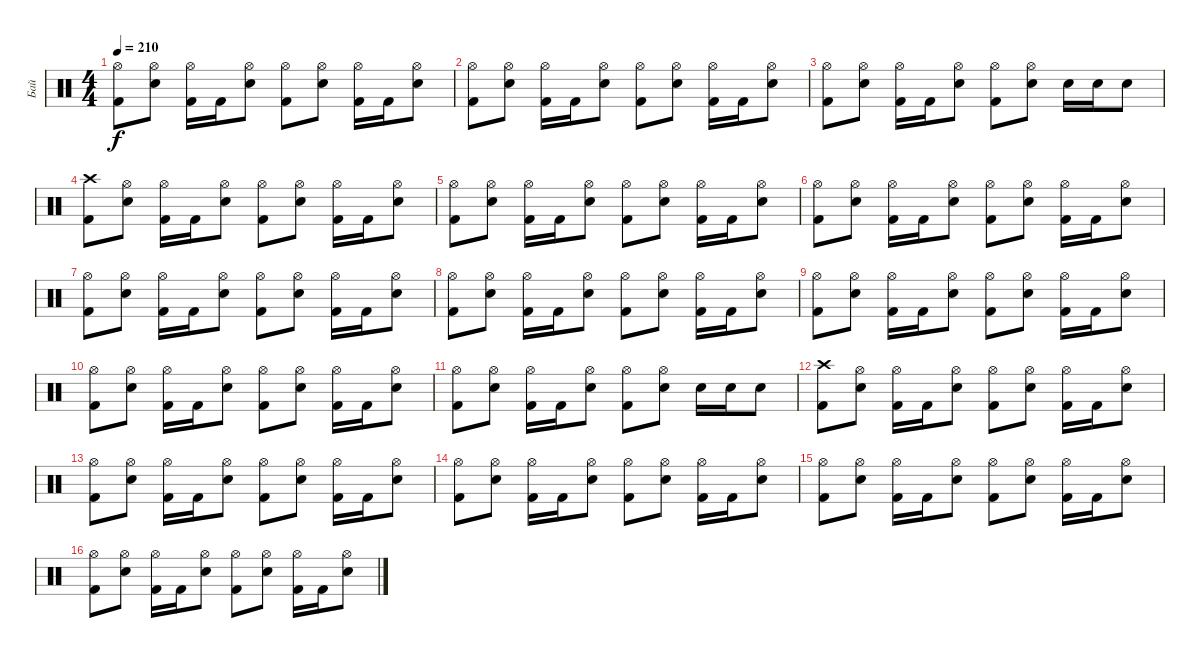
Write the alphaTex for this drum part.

\track ("Бай" "Бай") {instrument percussion}
\staff {score}
\articulation defaults
\ts (4 4)
\tempo 210
\clef neutral
\ks c
("Hi-Hat (open)" "Kick (hit) 2").8{dy f} ("Hi-Hat (open)" "Electric Snare (hit)").8 ("Hi-Hat (open)" "Kick (hit) 2").16 "Kick (hit) 2".16 ("Hi-Hat (open)" "Electric Snare (hit)").8 ("Hi-Hat (open)" "Kick (hit) 2").8 ("Hi-Hat (open)" "Electric Snare (hit)").8 ("Hi-Hat (open)" "Kick (hit) 2").16 "Kick (hit) 2".16 ("Hi-Hat (open)" "Electric Snare (hit)").8 |
("Hi-Hat (open)" "Kick (hit) 2").8 ("Hi-Hat (open)" "Electric Snare (hit)").8 ("Hi-Hat (open)" "Kick (hit) 2").16 "Kick (hit) 2".16 ("Hi-Hat (open)" "Electric Snare (hit)").8 ("Hi-Hat (open)" "Kick (hit) 2").8 ("Hi-Hat (open)" "Electric Snare (hit)").8 ("Hi-Hat (open)" "Kick (hit) 2").16 "Kick (hit) 2".16 ("Hi-Hat (open)" "Electric Snare (hit)").8 |
("Hi-Hat (open)" "Kick (hit) 2").8 ("Hi-Hat (open)" "Electric Snare (hit)").8 ("Hi-Hat (open)" "Kick (hit) 2").16 "Kick (hit) 2".16 ("Hi-Hat (open)" "Electric Snare (hit)").8 ("Hi-Hat (open)" "Kick (hit) 2").8 ("Hi-Hat (open)" "Electric Snare (hit)").8 "Electric Snare (hit)".16 "Electric Snare (hit)".16 "Electric Snare (hit)".8 |
("Crash high (hit)" "Kick (hit) 2").8 ("Hi-Hat (open)" "Electric Snare (hit)").8 ("Hi-Hat (open)" "Kick (hit) 2").16 "Kick (hit) 2".16 ("Hi-Hat (open)" "Electric Snare (hit)").8 ("Hi-Hat (open)" "Kick (hit) 2").8 ("Hi-Hat (open)" "Electric Snare (hit)").8 ("Hi-Hat (open)" "Kick (hit) 2").16 "Kick (hit) 2".16 ("Hi-Hat (open)" "Electric Snare (hit)").8 |
("Hi-Hat (open)" "Kick (hit) 2").8 ("Hi-Hat (open)" "Electric Snare (hit)").8 ("Hi-Hat (open)" "Kick (hit) 2").16 "Kick (hit) 2".16 ("Hi-Hat (open)" "Electric Snare (hit)").8 ("Hi-Hat (open)" "Kick (hit) 2").8 ("Hi-Hat (open)" "Electric Snare (hit)").8 ("Hi-Hat (open)" "Kick (hit) 2").16 "Kick (hit) 2".16 ("Hi-Hat (open)" "Electric Snare (hit)").8 |
("Hi-Hat (open)" "Kick (hit) 2").8 ("Hi-Hat (open)" "Electric Snare (hit)").8 ("Hi-Hat (open)" "Kick (hit) 2").16 "Kick (hit) 2".16 ("Hi-Hat (open)" "Electric Snare (hit)").8 ("Hi-Hat (open)" "Kick (hit) 2").8 ("Hi-Hat (open)" "Electric Snare (hit)").8 ("Hi-Hat (open)" "Kick (hit) 2").16 "Kick (hit) 2".16 ("Hi-Hat (open)" "Electric Snare (hit)").8 |
("Hi-Hat (open)" "Kick (hit) 2").8 ("Hi-Hat (open)" "Electric Snare (hit)").8 ("Hi-Hat (open)" "Kick (hit) 2").16 "Kick (hit) 2".16 ("Hi-Hat (open)" "Electric Snare (hit)").8 ("Hi-Hat (open)" "Kick (hit) 2").8 ("Hi-Hat (open)" "Electric Snare (hit)").8 ("Hi-Hat (open)" "Kick (hit) 2").16 "Kick (hit) 2".16 ("Hi-Hat (open)" "Electric Snare (hit)").8 |
("Hi-Hat (open)" "Kick (hit) 2").8 ("Hi-Hat (open)" "Electric Snare (hit)").8 ("Hi-Hat (open)" "Kick (hit) 2").16 "Kick (hit) 2".16 ("Hi-Hat (open)" "Electric Snare (hit)").8 ("Hi-Hat (open)" "Kick (hit) 2").8 ("Hi-Hat (open)" "Electric Snare (hit)").8 ("Hi-Hat (open)" "Kick (hit) 2").16 "Kick (hit) 2".16 ("Hi-Hat (open)" "Electric Snare (hit)").8 |
("Hi-Hat (open)" "Kick (hit) 2").8 ("Hi-Hat (open)" "Electric Snare (hit)").8 ("Hi-Hat (open)" "Kick (hit) 2").16 "Kick (hit) 2".16 ("Hi-Hat (open)" "Electric Snare (hit)").8 ("Hi-Hat (open)" "Kick (hit) 2").8 ("Hi-Hat (open)" "Electric Snare (hit)").8 ("Hi-Hat (open)" "Kick (hit) 2").16 "Kick (hit) 2".16 ("Hi-Hat (open)" "Electric Snare (hit)").8 |
("Hi-Hat (open)" "Kick (hit) 2").8 ("Hi-Hat (open)" "Electric Snare (hit)").8 ("Hi-Hat (open)" "Kick (hit) 2").16 "Kick (hit) 2".16 ("Hi-Hat (open)" "Electric Snare (hit)").8 ("Hi-Hat (open)" "Kick (hit) 2").8 ("Hi-Hat (open)" "Electric Snare (hit)").8 ("Hi-Hat (open)" "Kick (hit) 2").16 "Kick (hit) 2".16 ("Hi-Hat (open)" "Electric Snare (hit)").8 |
("Hi-Hat (open)" "Kick (hit) 2").8 ("Hi-Hat (open)" "Electric Snare (hit)").8 ("Hi-Hat (open)" "Kick (hit) 2").16 "Kick (hit) 2".16 ("Hi-Hat (open)" "Electric Snare (hit)").8 ("Hi-Hat (open)" "Kick (hit) 2").8 ("Hi-Hat (open)" "Electric Snare (hit)").8 "Electric Snare (hit)".16 "Electric Snare (hit)".16 "Electric Snare (hit)".8 |
("Crash high (hit)" "Kick (hit) 2").8 ("Hi-Hat (open)" "Electric Snare (hit)").8 ("Hi-Hat (open)" "Kick (hit) 2").16 "Kick (hit) 2".16 ("Hi-Hat (open)" "Electric Snare (hit)").8 ("Hi-Hat (open)" "Kick (hit) 2").8 ("Hi-Hat (open)" "Electric Snare (hit)").8 ("Hi-Hat (open)" "Kick (hit) 2").16 "Kick (hit) 2".16 ("Hi-Hat (open)" "Electric Snare (hit)").8 |
("Hi-Hat (open)" "Kick (hit) 2").8 ("Hi-Hat (open)" "Electric Snare (hit)").8 ("Hi-Hat (open)" "Kick (hit) 2").16 "Kick (hit) 2".16 ("Hi-Hat (open)" "Electric Snare (hit)").8 ("Hi-Hat (open)" "Kick (hit) 2").8 ("Hi-Hat (open)" "Electric Snare (hit)").8 ("Hi-Hat (open)" "Kick (hit) 2").16 "Kick (hit) 2".16 ("Hi-Hat (open)" "Electric Snare (hit)").8 |
("Hi-Hat (open)" "Kick (hit) 2").8 ("Hi-Hat (open)" "Electric Snare (hit)").8 ("Hi-Hat (open)" "Kick (hit) 2").16 "Kick (hit) 2".16 ("Hi-Hat (open)" "Electric Snare (hit)").8 ("Hi-Hat (open)" "Kick (hit) 2").8 ("Hi-Hat (open)" "Electric Snare (hit)").8 ("Hi-Hat (open)" "Kick (hit) 2").16 "Kick (hit) 2".16 ("Hi-Hat (open)" "Electric Snare (hit)").8 |
("Hi-Hat (open)" "Kick (hit) 2").8 ("Hi-Hat (open)" "Electric Snare (hit)").8 ("Hi-Hat (open)" "Kick (hit) 2").16 "Kick (hit) 2".16 ("Hi-Hat (open)" "Electric Snare (hit)").8 ("Hi-Hat (open)" "Kick (hit) 2").8 ("Hi-Hat (open)" "Electric Snare (hit)").8 ("Hi-Hat (open)" "Kick (hit) 2").16 "Kick (hit) 2".16 ("Hi-Hat (open)" "Electric Snare (hit)").8 |
("Hi-Hat (open)" "Kick (hit) 2").8 ("Hi-Hat (open)" "Electric Snare (hit)").8 ("Hi-Hat (open)" "Kick (hit) 2").16 "Kick (hit) 2".16 ("Hi-Hat (open)" "Electric Snare (hit)").8 ("Hi-Hat (open)" "Kick (hit) 2").8 ("Hi-Hat (open)" "Electric Snare (hit)").8 ("Hi-Hat (open)" "Kick (hit) 2").16 "Kick (hit) 2".16 ("Hi-Hat (open)" "Electric Snare (hit)").8
